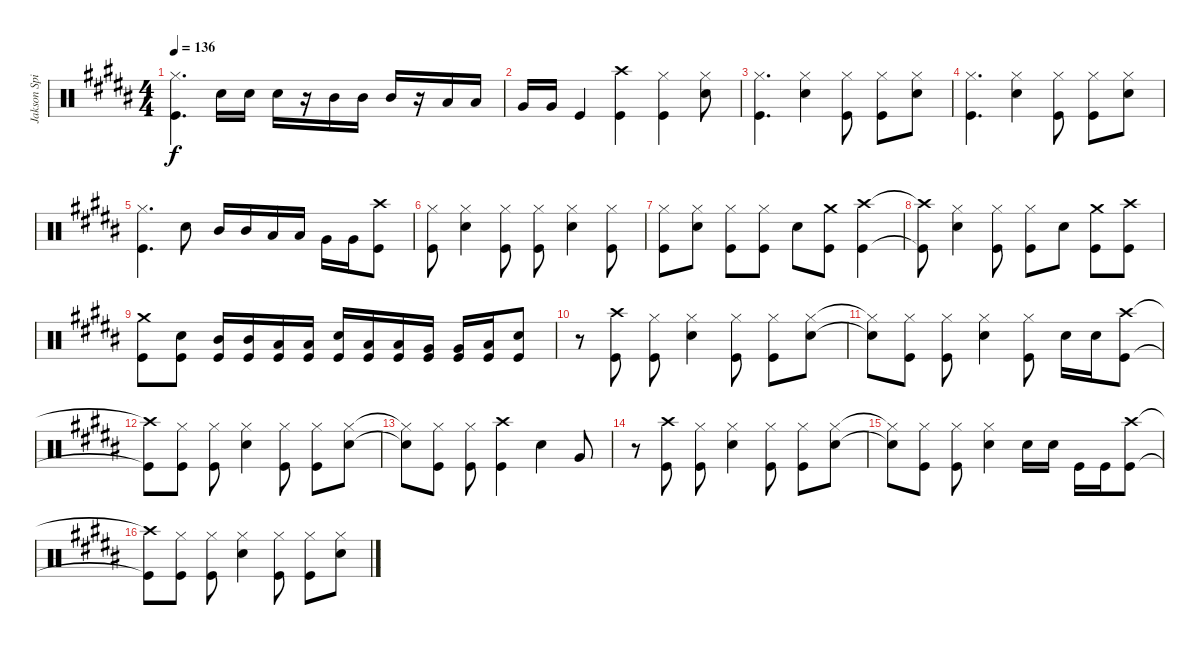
\track ("Jakson Spires Drums" "Jakson Spi") {instrument percussion}
\staff {score}
\articulation defaults
\ts (4 4)
\tempo 136
\clef neutral
\ks b
("Hi-Hat (closed)" "Kick (hit)").4{d dy f} "Snare (hit) 2".16 "Snare (hit) 2".16 "Snare (hit) 2".16 r.16 "Mid Tom (hit)".16 "Mid Tom (hit)".16 "Mid Tom (hit)".16 r.16 "Low Tom (hit)".16 "Low Tom (hit)".16 |
"Very Low Tom (hit)".16 "Very Low Tom (hit)".16 "Kick (hit)".4 ("Crash high (hit)" "Kick (hit)").4 ("Hi-Hat (closed)" "Kick (hit)").4 ("Hi-Hat (closed)" "Snare (hit) 2").8 |
("Hi-Hat (closed)" "Kick (hit)").4{d} ("Hi-Hat (closed)" "Snare (hit) 2").4 ("Hi-Hat (closed)" "Kick (hit)").8 ("Hi-Hat (closed)" "Kick (hit)").8 ("Hi-Hat (closed)" "Snare (hit) 2").8 |
("Hi-Hat (closed)" "Kick (hit)").4{d} ("Hi-Hat (closed)" "Snare (hit) 2").4 ("Hi-Hat (closed)" "Kick (hit)").8 ("Hi-Hat (closed)" "Kick (hit)").8 ("Hi-Hat (closed)" "Snare (hit) 2").8 |
("Hi-Hat (closed)" "Kick (hit)").4{d} "Snare (hit) 2".8 "Mid Tom (hit)".16 "Mid Tom (hit)".16 "Low Tom (hit)".16 "Low Tom (hit)".16 "Very Low Tom (hit)".16 "Very Low Tom (hit)".16 ("Crash high (hit)" "Kick (hit)").8 |
("Hi-Hat (closed)" "Kick (hit)").8 ("Hi-Hat (closed)" "Snare (hit) 2").4 ("Hi-Hat (closed)" "Kick (hit)").8 ("Hi-Hat (closed)" "Kick (hit)").8 ("Hi-Hat (closed)" "Snare (hit) 2").4 ("Hi-Hat (closed)" "Kick (hit)").8 |
("Hi-Hat (closed)" "Kick (hit)").8 ("Hi-Hat (closed)" "Snare (hit) 2").8 ("Hi-Hat (closed)" "Kick (hit)").8 ("Hi-Hat (closed)" "Kick (hit)").8 "Snare (hit) 2".8 ("Crash medium (hit)" "Kick (hit)").8 ("Crash high (hit)" "Kick (hit)").4 |
("Crash high (hit)"{t} "Kick (hit)"{t}).8 ("Hi-Hat (closed)" "Snare (hit) 2").4 ("Hi-Hat (closed)" "Kick (hit)").8 ("Hi-Hat (closed)" "Kick (hit)").8 "Snare (hit) 2".8 ("Crash medium (hit)" "Kick (hit)").8 ("Crash high (hit)" "Kick (hit)").8 |
("Crash medium (hit)" "Kick (hit)").8 ("Snare (hit) 2" "Kick (hit)").8 ("Mid Tom (hit)" "Kick (hit)").16 ("Mid Tom (hit)" "Kick (hit)").16 ("Low Tom (hit)" "Kick (hit)").16 ("Low Tom (hit)" "Kick (hit)").16 ("Snare (hit) 2" "Kick (hit)").16 ("Low Tom (hit)" "Kick (hit)").16 ("Low Tom (hit)" "Kick (hit)").16 ("Very Low Tom (hit)" "Kick (hit)").16 ("Very Low Tom (hit)" "Kick (hit)").16 ("Low Floor Tom (hit)" "Kick (hit)").16 ("Snare (hit) 2" "Kick (hit)").8 |
r.8 ("Crash high (hit)" "Kick (hit)").8 ("Hi-Hat (closed)" "Kick (hit)").8 ("Hi-Hat (closed)" "Snare (hit) 2").4 ("Hi-Hat (closed)" "Kick (hit)").8 ("Hi-Hat (closed)" "Kick (hit)").8 ("Hi-Hat (closed)" "Snare (hit) 2").8 |
("Hi-Hat (closed)"{t} "Snare (hit) 2"{t}).8 ("Hi-Hat (closed)" "Kick (hit)").8 ("Hi-Hat (closed)" "Kick (hit)").8 ("Hi-Hat (closed)" "Snare (hit) 2").4 ("Hi-Hat (closed)" "Kick (hit)").8 "Snare (hit) 2".16 "Snare (hit) 2".16 ("Crash high (hit)" "Kick (hit)").8 |
("Crash high (hit)"{t} "Kick (hit)"{t}).8 ("Hi-Hat (closed)" "Kick (hit)").8 ("Hi-Hat (closed)" "Kick (hit)").8 ("Hi-Hat (closed)" "Snare (hit) 2").4 ("Hi-Hat (closed)" "Kick (hit)").8 ("Hi-Hat (closed)" "Kick (hit)").8 ("Hi-Hat (closed)" "Snare (hit) 2").8 |
("Hi-Hat (closed)"{t} "Snare (hit) 2"{t}).8 ("Hi-Hat (closed)" "Kick (hit)").8 ("Hi-Hat (closed)" "Kick (hit)").8 ("Crash high (hit)" "Kick (hit)").4 "Snare (hit) 2".4 "Very Low Tom (hit)".8 |
r.8 ("Crash high (hit)" "Kick (hit)").8 ("Hi-Hat (closed)" "Kick (hit)").8 ("Hi-Hat (closed)" "Snare (hit) 2").4 ("Hi-Hat (closed)" "Kick (hit)").8 ("Hi-Hat (closed)" "Kick (hit)").8 ("Hi-Hat (closed)" "Snare (hit) 2").8 |
("Hi-Hat (closed)"{t} "Snare (hit) 2"{t}).8 ("Hi-Hat (closed)" "Kick (hit)").8 ("Hi-Hat (closed)" "Kick (hit)").8 ("Hi-Hat (closed)" "Snare (hit) 2").4 "Snare (hit) 2".16 "Snare (hit) 2".16 "Kick (hit)".16 "Kick (hit)".16 ("Crash high (hit)" "Kick (hit)").8 |
("Crash high (hit)"{t} "Kick (hit)"{t}).8 ("Hi-Hat (closed)" "Kick (hit)").8 ("Hi-Hat (closed)" "Kick (hit)").8 ("Hi-Hat (closed)" "Snare (hit) 2").4 ("Hi-Hat (closed)" "Kick (hit)").8 ("Hi-Hat (closed)" "Kick (hit)").8 ("Hi-Hat (closed)" "Snare (hit) 2").8
